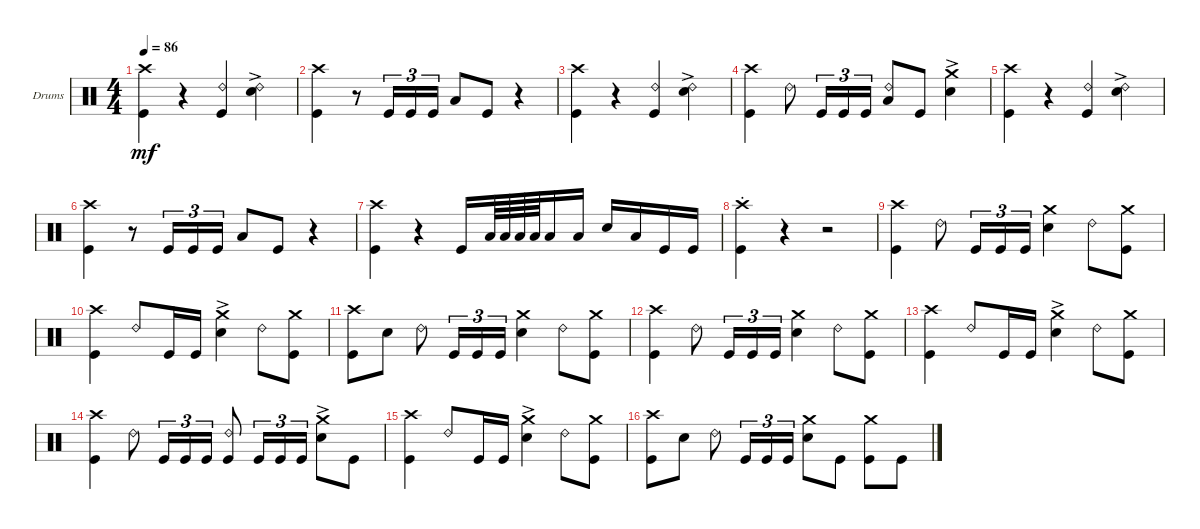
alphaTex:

\defaultSystemsLayout 4
\bracketExtendMode groupsimilarinstruments
\firstSystemTrackNameOrientation horizontal
\otherSystemsTrackNameOrientation horizontal
\track ("Drumkit" "Drums") {instrument percussion}
\staff {score}
\articulation defaults
\ts (4 4)
\tempo 86
\clef neutral
\scale
0.273349
\ks c
("Kick (hit)" "Crash high (hit)").4{dy mf} r.4 ("Ride (bell) 2" "Kick (hit)").4 ("Snare (hit) 2"{ac} "Ride (bell) 2").4 |
\scale
0.387218 ("Kick (hit)" "Crash high (hit)").4 r.8 "Kick (hit)".16{tu (3 2)} "Kick (hit)".16{tu (3 2)} "Kick (hit)".16{tu (3 2)} "Low Tom (hit)".8 "Kick (hit)".8 r.4 |
\scale
0.225564 ("Kick (hit)" "Crash high (hit)").4 r.4 ("Ride (bell) 2" "Kick (hit)").4 ("Snare (hit) 2"{ac} "Ride (bell) 2").4 |
\scale
0.387218 ("Kick (hit)" "Crash high (hit)").4 "Ride (bell) 2".8 "Kick (hit)".16{tu (3 2)} "Kick (hit)".16{tu (3 2)} "Kick (hit)".16{tu (3 2)} ("Low Tom (hit)" "Ride (bell) 2").8 "Kick (hit)".8 ("Crash medium (hit)" "Snare (hit) 2"{ac}).4 |
\scale
0.188679 ("Kick (hit)" "Crash high (hit)").4 r.4 ("Ride (bell) 2" "Kick (hit)").4 ("Snare (hit) 2"{ac} "Ride (bell) 2").4 |
\scale
0.323899 ("Kick (hit)" "Crash high (hit)").4 r.8 "Kick (hit)".16{tu (3 2)} "Kick (hit)".16{tu (3 2)} "Kick (hit)".16{tu (3 2)} "Low Tom (hit)".8 "Kick (hit)".8 r.4 |
\scale
0.487421 ("Kick (hit)" "Crash high (hit)").4 r.4 "Kick (hit)".16 "Low Tom (hit)".64 "Low Tom (hit)".64 "Low Tom (hit)".64 "Low Tom (hit)".64 "Low Tom (hit)".16 "Low Tom (hit)".16 "Snare (hit) 2".16 "Low Tom (hit)".16 "Kick (hit)".16 "Kick (hit)".16 |
\scale
0.222222 ("Kick (hit)" "Crash high (hit)"{st}).4 r.4 r.2 |
\scale
0.431866 ("Kick (hit)" "Crash high (hit)").4 "Ride (bell) 2".8 "Kick (hit)".16{tu (3 2)} "Kick (hit)".16{tu (3 2)} "Kick (hit)".16{tu (3 2)} ("Snare (hit) 2" "Crash medium (hit)").4 "Ride (bell) 2".8 ("Kick (hit)" "Crash medium (hit)").8 |
\scale
0.345912 ("Kick (hit)" "Crash high (hit)").4 "Ride (bell) 2".8 "Kick (hit)".16 "Kick (hit)".16 ("Snare (hit) 2"{ac} "Crash medium (hit)").4 "Ride (bell) 2".8 ("Kick (hit)" "Crash medium (hit)").8 |
\scale
0.37225 ("Kick (hit)" "Crash high (hit)").8 "Snare (hit) 2".8 "Ride (bell) 2".8 "Kick (hit)".16{tu (3 2)} "Kick (hit)".16{tu (3 2)} "Kick (hit)".16{tu (3 2)} ("Snare (hit) 2" "Crash medium (hit)").4 "Ride (bell) 2".8 ("Kick (hit)" "Crash medium (hit)").8 |
\scale
0.348562 ("Kick (hit)" "Crash high (hit)").4 "Ride (bell) 2".8 "Kick (hit)".16{tu (3 2)} "Kick (hit)".16{tu (3 2)} "Kick (hit)".16{tu (3 2)} ("Snare (hit) 2" "Crash medium (hit)").4 "Ride (bell) 2".8 ("Kick (hit)" "Crash medium (hit)").8 |
\scale
0.279188 ("Kick (hit)" "Crash high (hit)").4 "Ride (bell) 2".8 "Kick (hit)".16 "Kick (hit)".16 ("Snare (hit) 2"{ac} "Crash medium (hit)").4 "Ride (bell) 2".8 ("Kick (hit)" "Crash medium (hit)").8 |
\scale
0.373626 ("Kick (hit)" "Crash high (hit)").4 "Ride (bell) 2".8 "Kick (hit)".16{tu (3 2)} "Kick (hit)".16{tu (3 2)} "Kick (hit)".16{tu (3 2)} ("Kick (hit)" "Ride (bell) 2").8 "Kick (hit)".16{tu (3 2)} "Kick (hit)".16{tu (3 2)} "Kick (hit)".16{tu (3 2)} ("Snare (hit) 2"{ac} "Crash medium (hit)").8 "Kick (hit)".8 |
\scale
0.259027 ("Kick (hit)" "Crash high (hit)").4 "Ride (bell) 2".8 "Kick (hit)".16 "Kick (hit)".16 ("Snare (hit) 2"{ac} "Crash medium (hit)").4 "Ride (bell) 2".8 ("Kick (hit)" "Crash medium (hit)").8 |
\scale
0.367347 ("Kick (hit)" "Crash high (hit)").8 "Snare (hit) 2".8 "Ride (bell) 2".8 "Kick (hit)".16{tu (3 2)} "Kick (hit)".16{tu (3 2)} "Kick (hit)".16{tu (3 2)} ("Snare (hit) 2" "Crash medium (hit)").8 "Kick (hit)".8 ("Kick (hit)" "Crash medium (hit)").8 "Kick (hit)".8
